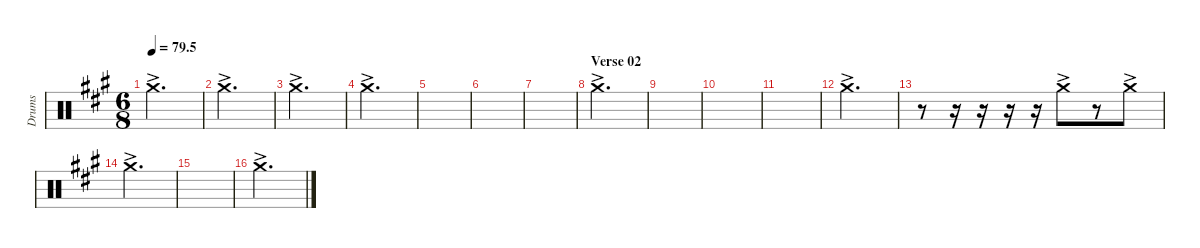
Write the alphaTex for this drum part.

\defaultSystemsLayout 4
\hideDynamics
\bracketExtendMode nobrackets
\otherSystemsTrackNameOrientation horizontal
\track ("Right crash" "Drums") {instrument percussion}
\staff {score}
\articulation defaults
\ts (6 8)
\tempo
79.5
\accidentals auto
\clef neutral
\ottava regular
\simile none
\scale
0.333333
\ks a "Crash medium (hit)"{ac acc forcenatural}.2{d dy f}
|
\scale
0.333333 "Crash medium (hit)"{ac acc forcenatural}.2{d} |
\scale
0.333333 "Crash medium (hit)"{ac acc forcenatural}.2{d} |
\scale
0.333333 "Crash medium (hit)"{ac acc forcenatural}.2{d} |
\scale
0.333333 |
\scale
0.333333 |
\scale
0.333333 |
\section ("" "Verse 02")
\scale
0.333333 "Crash medium (hit)"{ac acc forcenatural}.2{d} |
\scale
0.333333 |
\scale
0.333333 |
\scale
0.333333 |
\scale
0.333333 "Crash medium (hit)"{ac acc forcenatural}.2{d} |
\scale
0.333333 r.8 r.16 r.16 r.16 r.16 "Crash medium (hit)"{ac acc forcenatural}.8 r.8 "Crash medium (hit)"{ac acc forcenatural}.8 |
\scale
0.333333 "Crash medium (hit)"{ac acc forcenatural}.2{d} |
\scale
0.333333 |
\scale
0.333333 "Crash medium (hit)"{ac acc forcenatural}.2{d}
